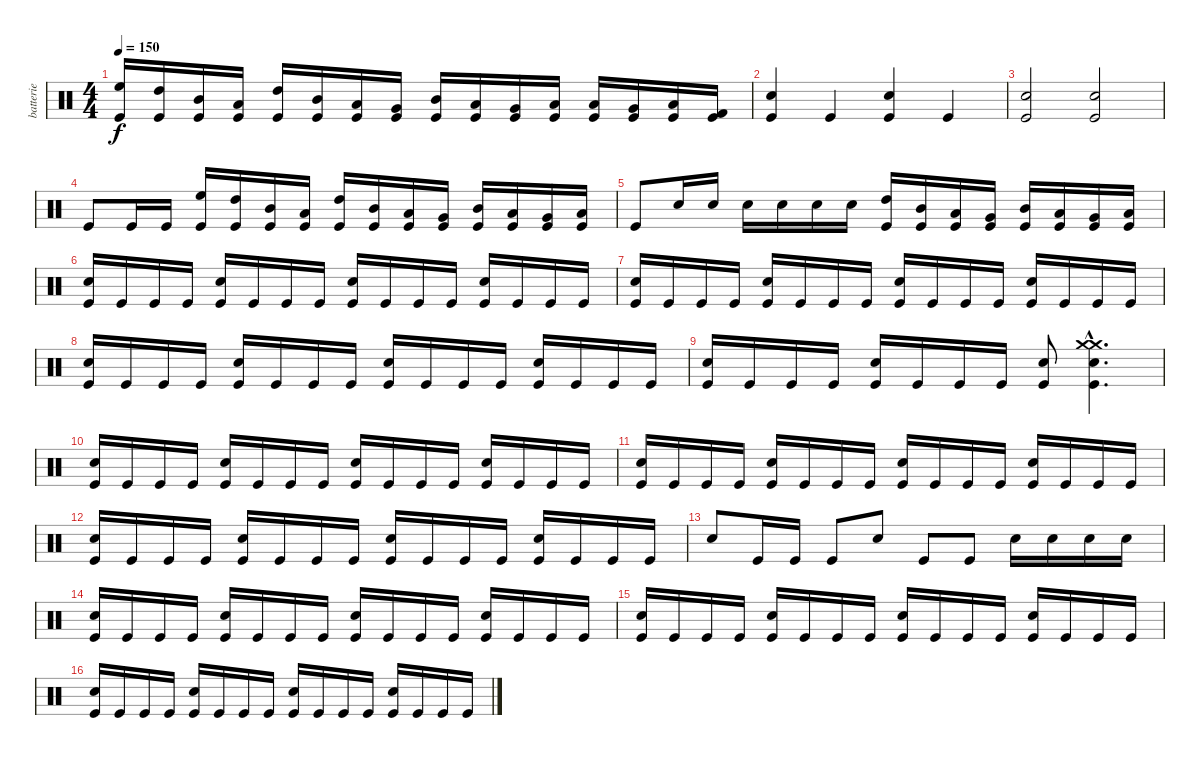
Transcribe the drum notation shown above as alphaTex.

\track ("batterie" "batterie") {instrument percussion}
\staff {score}
\articulation defaults
\ts (4 4)
\tempo 150
\clef neutral
\ks c
("High Floor Tom (hit)" "Kick (hit)").16{dy f} ("High Tom (hit)" "Kick (hit)").16 ("Mid Tom (hit)" "Kick (hit)").16 ("Low Tom (hit)" "Kick (hit)").16 ("High Tom (hit)" "Kick (hit)").16 ("Mid Tom (hit)" "Kick (hit)").16 ("Low Tom (hit)" "Kick (hit)").16 ("Very Low Tom (hit)" "Kick (hit)").16 ("Mid Tom (hit)" "Kick (hit)").16 ("Low Tom (hit)" "Kick (hit)").16 ("Very Low Tom (hit)" "Kick (hit)").16 ("Low Floor Tom (hit)" "Kick (hit)").16 ("Low Tom (hit)" "Kick (hit)").16 ("Very Low Tom (hit)" "Kick (hit)").16 ("Low Floor Tom (hit)" "Kick (hit)").16 ("Kick (hit) 2" "Kick (hit)").16 |
("Snare (hit) 2" "Kick (hit)").4 "Kick (hit)".4 ("Snare (hit) 2" "Kick (hit)").4 "Kick (hit)".4 |
("Snare (hit) 2" "Kick (hit)").2 ("Snare (hit) 2" "Kick (hit)").2 |
"Kick (hit)".8 "Kick (hit)".16 "Kick (hit)".16 ("High Floor Tom (hit)" "Kick (hit)").16 ("High Tom (hit)" "Kick (hit)").16 ("Mid Tom (hit)" "Kick (hit)").16 ("Low Tom (hit)" "Kick (hit)").16 ("High Tom (hit)" "Kick (hit)").16 ("Mid Tom (hit)" "Kick (hit)").16 ("Low Tom (hit)" "Kick (hit)").16 ("Very Low Tom (hit)" "Kick (hit)").16 ("Mid Tom (hit)" "Kick (hit)").16 ("Low Tom (hit)" "Kick (hit)").16 ("Very Low Tom (hit)" "Kick (hit)").16 ("Low Floor Tom (hit)" "Kick (hit)").16 |
"Kick (hit)".8 "Snare (hit) 2".16 "Snare (hit) 2".16 "Snare (hit) 2".16 "Snare (hit) 2".16 "Snare (hit) 2".16 "Snare (hit) 2".16 ("High Tom (hit)" "Kick (hit)").16 ("Mid Tom (hit)" "Kick (hit)").16 ("Low Tom (hit)" "Kick (hit)").16 ("Very Low Tom (hit)" "Kick (hit)").16 ("Mid Tom (hit)" "Kick (hit)").16 ("Low Tom (hit)" "Kick (hit)").16 ("Very Low Tom (hit)" "Kick (hit)").16 ("Low Floor Tom (hit)" "Kick (hit)").16 |
("Snare (hit) 2" "Kick (hit)").16 "Kick (hit)".16 "Kick (hit)".16 "Kick (hit)".16 ("Snare (hit) 2" "Kick (hit)").16 "Kick (hit)".16 "Kick (hit)".16 "Kick (hit)".16 ("Snare (hit) 2" "Kick (hit)").16 "Kick (hit)".16 "Kick (hit)".16 "Kick (hit)".16 ("Snare (hit) 2" "Kick (hit)").16 "Kick (hit)".16 "Kick (hit)".16 "Kick (hit)".16 |
("Snare (hit) 2" "Kick (hit)").16 "Kick (hit)".16 "Kick (hit)".16 "Kick (hit)".16 ("Snare (hit) 2" "Kick (hit)").16 "Kick (hit)".16 "Kick (hit)".16 "Kick (hit)".16 ("Snare (hit) 2" "Kick (hit)").16 "Kick (hit)".16 "Kick (hit)".16 "Kick (hit)".16 ("Snare (hit) 2" "Kick (hit)").16 "Kick (hit)".16 "Kick (hit)".16 "Kick (hit)".16 |
("Snare (hit) 2" "Kick (hit)").16 "Kick (hit)".16 "Kick (hit)".16 "Kick (hit)".16 ("Snare (hit) 2" "Kick (hit)").16 "Kick (hit)".16 "Kick (hit)".16 "Kick (hit)".16 ("Snare (hit) 2" "Kick (hit)").16 "Kick (hit)".16 "Kick (hit)".16 "Kick (hit)".16 ("Snare (hit) 2" "Kick (hit)").16 "Kick (hit)".16 "Kick (hit)".16 "Kick (hit)".16 |
("Snare (hit) 2" "Kick (hit)").16 "Kick (hit)".16 "Kick (hit)".16 "Kick (hit)".16 ("Snare (hit) 2" "Kick (hit)").16 "Kick (hit)".16 "Kick (hit)".16 "Kick (hit)".16 ("Snare (hit) 2" "Kick (hit)").8 ("Crash medium (hit)"{hac} "Crash medium (hit)"{hac} "Snare (hit) 2"{hac} "Kick (hit)"{hac}).4{d} |
("Snare (hit) 2" "Kick (hit)").16 "Kick (hit)".16 "Kick (hit)".16 "Kick (hit)".16 ("Snare (hit) 2" "Kick (hit)").16 "Kick (hit)".16 "Kick (hit)".16 "Kick (hit)".16 ("Snare (hit) 2" "Kick (hit)").16 "Kick (hit)".16 "Kick (hit)".16 "Kick (hit)".16 ("Snare (hit) 2" "Kick (hit)").16 "Kick (hit)".16 "Kick (hit)".16 "Kick (hit)".16 |
("Snare (hit) 2" "Kick (hit)").16 "Kick (hit)".16 "Kick (hit)".16 "Kick (hit)".16 ("Snare (hit) 2" "Kick (hit)").16 "Kick (hit)".16 "Kick (hit)".16 "Kick (hit)".16 ("Snare (hit) 2" "Kick (hit)").16 "Kick (hit)".16 "Kick (hit)".16 "Kick (hit)".16 ("Snare (hit) 2" "Kick (hit)").16 "Kick (hit)".16 "Kick (hit)".16 "Kick (hit)".16 |
("Snare (hit) 2" "Kick (hit)").16 "Kick (hit)".16 "Kick (hit)".16 "Kick (hit)".16 ("Snare (hit) 2" "Kick (hit)").16 "Kick (hit)".16 "Kick (hit)".16 "Kick (hit)".16 ("Snare (hit) 2" "Kick (hit)").16 "Kick (hit)".16 "Kick (hit)".16 "Kick (hit)".16 ("Snare (hit) 2" "Kick (hit)").16 "Kick (hit)".16 "Kick (hit)".16 "Kick (hit)".16 |
"Snare (hit) 2".8 "Kick (hit)".16 "Kick (hit)".16 "Kick (hit)".8 "Snare (hit) 2".8 "Kick (hit)".8 "Kick (hit)".8 "Snare (hit) 2".16 "Snare (hit) 2".16 "Snare (hit) 2".16 "Snare (hit) 2".16 |
("Snare (hit) 2" "Kick (hit)").16 "Kick (hit)".16 "Kick (hit)".16 "Kick (hit)".16 ("Snare (hit) 2" "Kick (hit)").16 "Kick (hit)".16 "Kick (hit)".16 "Kick (hit)".16 ("Snare (hit) 2" "Kick (hit)").16 "Kick (hit)".16 "Kick (hit)".16 "Kick (hit)".16 ("Snare (hit) 2" "Kick (hit)").16 "Kick (hit)".16 "Kick (hit)".16 "Kick (hit)".16 |
("Snare (hit) 2" "Kick (hit)").16 "Kick (hit)".16 "Kick (hit)".16 "Kick (hit)".16 ("Snare (hit) 2" "Kick (hit)").16 "Kick (hit)".16 "Kick (hit)".16 "Kick (hit)".16 ("Snare (hit) 2" "Kick (hit)").16 "Kick (hit)".16 "Kick (hit)".16 "Kick (hit)".16 ("Snare (hit) 2" "Kick (hit)").16 "Kick (hit)".16 "Kick (hit)".16 "Kick (hit)".16 |
("Snare (hit) 2" "Kick (hit)").16 "Kick (hit)".16 "Kick (hit)".16 "Kick (hit)".16 ("Snare (hit) 2" "Kick (hit)").16 "Kick (hit)".16 "Kick (hit)".16 "Kick (hit)".16 ("Snare (hit) 2" "Kick (hit)").16 "Kick (hit)".16 "Kick (hit)".16 "Kick (hit)".16 ("Snare (hit) 2" "Kick (hit)").16 "Kick (hit)".16 "Kick (hit)".16 "Kick (hit)".16
